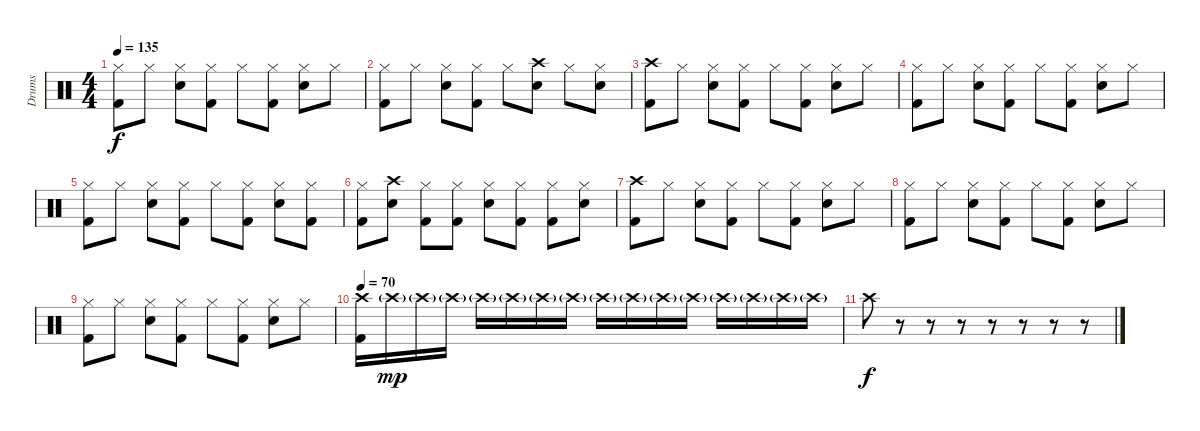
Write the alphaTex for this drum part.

\track ("Drums" "Drums") {instrument percussion}
\staff {score}
\articulation defaults
\ts (4 4)
\tempo 135
\clef neutral
\ks c
("Kick (hit) 2" "Hi-Hat (closed)").8{dy f} "Hi-Hat (closed)".8 ("Snare (hit) 2" "Hi-Hat (closed)").8 ("Kick (hit) 2" "Hi-Hat (closed)").8 "Hi-Hat (closed)".8 ("Kick (hit) 2" "Hi-Hat (closed)").8 ("Snare (hit) 2" "Hi-Hat (closed)").8 "Hi-Hat (closed)".8 |
("Kick (hit) 2" "Hi-Hat (closed)").8 "Hi-Hat (closed)".8 ("Snare (hit) 2" "Hi-Hat (closed)").8 ("Kick (hit) 2" "Hi-Hat (closed)").8 "Hi-Hat (closed)".8 ("Crash high (hit)" "Snare (hit) 2").8 "Hi-Hat (closed)".8 ("Snare (hit) 2" "Hi-Hat (closed)").8 |
("Crash high (hit)" "Kick (hit) 2").8 "Hi-Hat (closed)".8 ("Snare (hit) 2" "Hi-Hat (closed)").8 ("Kick (hit) 2" "Hi-Hat (closed)").8 "Hi-Hat (closed)".8 ("Kick (hit) 2" "Hi-Hat (closed)").8 ("Snare (hit) 2" "Hi-Hat (closed)").8 "Hi-Hat (closed)".8 |
("Kick (hit) 2" "Hi-Hat (closed)").8 "Hi-Hat (closed)".8 ("Snare (hit) 2" "Hi-Hat (closed)").8 ("Kick (hit) 2" "Hi-Hat (closed)").8 "Hi-Hat (closed)".8 ("Kick (hit) 2" "Hi-Hat (closed)").8 ("Snare (hit) 2" "Hi-Hat (closed)").8 "Hi-Hat (closed)".8 |
("Kick (hit) 2" "Hi-Hat (closed)").8 "Hi-Hat (closed)".8 ("Snare (hit) 2" "Hi-Hat (closed)").8 ("Kick (hit) 2" "Hi-Hat (closed)").8 "Hi-Hat (closed)".8 ("Kick (hit) 2" "Hi-Hat (closed)").8 ("Snare (hit) 2" "Hi-Hat (closed)").8 ("Kick (hit) 2" "Hi-Hat (closed)").8 |
("Kick (hit) 2" "Hi-Hat (closed)").8 ("Crash high (hit)" "Snare (hit) 2").8 ("Kick (hit) 2" "Hi-Hat (closed)").8 ("Kick (hit) 2" "Hi-Hat (closed)").8 ("Snare (hit) 2" "Hi-Hat (closed)").8 ("Kick (hit) 2" "Hi-Hat (closed)").8 ("Kick (hit) 2" "Hi-Hat (closed)").8 ("Snare (hit) 2" "Hi-Hat (closed)").8 |
("Crash high (hit)" "Kick (hit) 2").8 "Hi-Hat (closed)".8 ("Snare (hit) 2" "Hi-Hat (closed)").8 ("Kick (hit) 2" "Hi-Hat (closed)").8 "Hi-Hat (closed)".8 ("Kick (hit) 2" "Hi-Hat (closed)").8 ("Snare (hit) 2" "Hi-Hat (closed)").8 "Hi-Hat (closed)".8 |
("Kick (hit) 2" "Hi-Hat (closed)").8 "Hi-Hat (closed)".8 ("Snare (hit) 2" "Hi-Hat (closed)").8 ("Kick (hit) 2" "Hi-Hat (closed)").8 "Hi-Hat (closed)".8 ("Kick (hit) 2" "Hi-Hat (closed)").8 ("Snare (hit) 2" "Hi-Hat (closed)").8 "Hi-Hat (closed)".8 |
("Kick (hit) 2" "Hi-Hat (closed)").8 "Hi-Hat (closed)".8 ("Snare (hit) 2" "Hi-Hat (closed)").8 ("Kick (hit) 2" "Hi-Hat (closed)").8 "Hi-Hat (closed)".8 ("Kick (hit) 2" "Hi-Hat (closed)").8 ("Snare (hit) 2" "Hi-Hat (closed)").8 "Hi-Hat (closed)".8 |
\tempo 70
("Crash high (hit)" "Kick (hit) 2").16 "Crash high (hit)"{g}.16{dy mp} "Crash high (hit)"{g}.16 "Crash high (hit)"{g}.16 "Crash high (hit)"{g}.16 "Crash high (hit)"{g}.16 "Crash high (hit)"{g}.16 "Crash high (hit)"{g}.16 "Crash high (hit)"{g}.16 "Crash high (hit)"{g}.16 "Crash high (hit)"{g}.16 "Crash high (hit)"{g}.16 "Crash high (hit)"{g}.16 "Crash high (hit)"{g}.16 "Crash high (hit)"{g}.16 "Crash high (hit)"{g}.16 |
"Crash high (hit)".8{dy f} r.8 r.8 r.8 r.8 r.8 r.8 r.8
